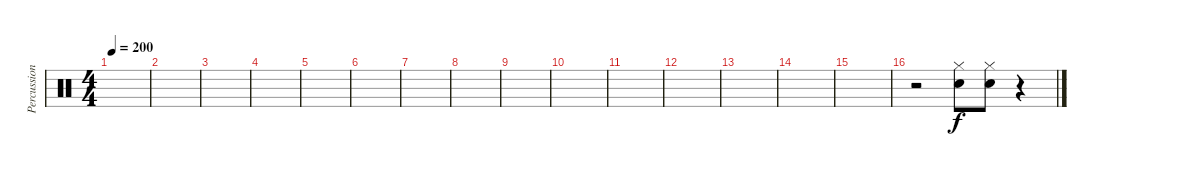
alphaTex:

\track ("Percussion" "Percussion") {instrument percussion}
\staff {score}
\articulation defaults
\ts (4 4)
\tempo 200
\clef neutral
\ks c
|
|
|
|
|
|
|
|
|
|
|
|
|
|
|
r.2 ("Hi-Hat (closed)" "Electric Snare (hit)").8 ("Hi-Hat (closed)" "Electric Snare (hit)").8 r.4
